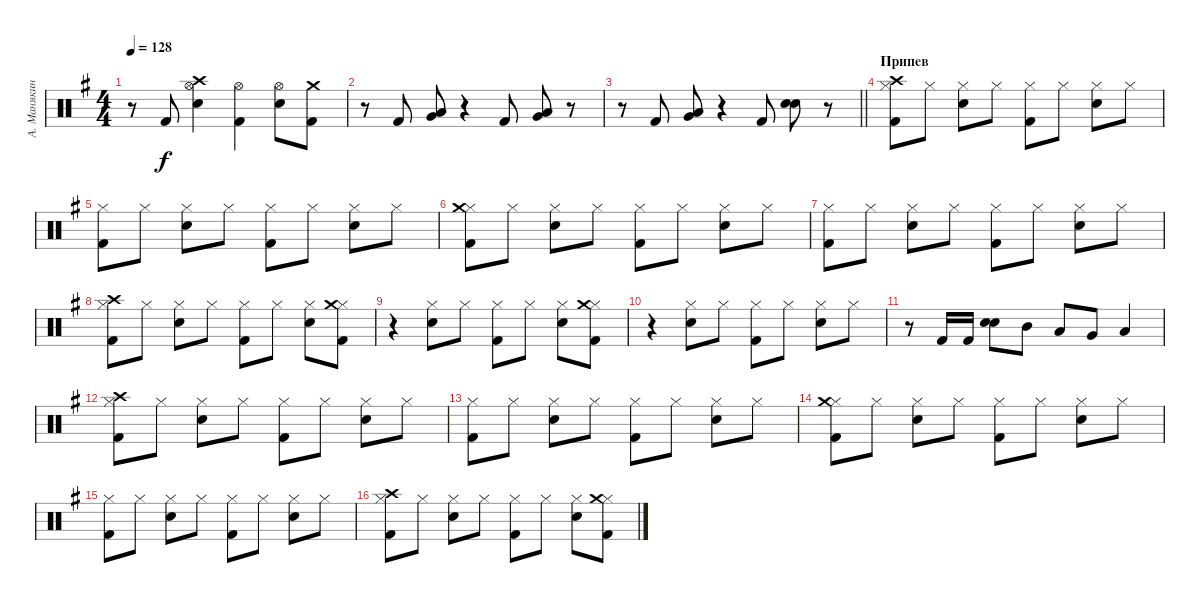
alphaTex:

\track ("А. Манякин" "А. Манякин") {instrument percussion}
\staff {score}
\articulation defaults
\ts (4 4)
\tempo 128
\clef neutral
\ks g
r.8{dy f} "Kick (hit) 2".8 ("Electric Snare (hit)" "Hi-Hat (open)" "Crash high (hit)").4 ("Kick (hit) 2" "Hi-Hat (open)").4 ("Electric Snare (hit)" "Hi-Hat (open)").8 ("Kick (hit) 2" "Crash medium (hit)").8 |
r.8 "Kick (hit) 2".8 ("Very Low Tom (hit)" "Low Tom (hit)").8 r.4 "Kick (hit) 2".8 ("Very Low Tom (hit)" "Low Tom (hit)").8 r.8 |
\barLineRight lightlight
r.8 "Kick (hit) 2".8 ("Very Low Tom (hit)" "Low Tom (hit)").8 r.4 "Kick (hit) 2".8 ("Electric Snare (hit)" "Electric Snare (hit)").8 r.8 |
\section ("" "Припев")
("Kick (hit) 2" "Hi-Hat (closed)" "Crash high (hit)").8 "Hi-Hat (closed)".8 ("Electric Snare (hit)" "Hi-Hat (closed)").8 "Hi-Hat (closed)".8 ("Kick (hit) 2" "Hi-Hat (closed)").8 "Hi-Hat (closed)".8 ("Electric Snare (hit)" "Hi-Hat (closed)").8 "Hi-Hat (closed)".8 |
("Kick (hit) 2" "Hi-Hat (closed)").8 "Hi-Hat (closed)".8 ("Electric Snare (hit)" "Hi-Hat (closed)").8 "Hi-Hat (closed)".8 ("Kick (hit) 2" "Hi-Hat (closed)").8 "Hi-Hat (closed)".8 ("Electric Snare (hit)" "Hi-Hat (closed)").8 "Hi-Hat (closed)".8 |
("Kick (hit) 2" "Hi-Hat (closed)" "Crash medium (hit)").8 "Hi-Hat (closed)".8 ("Electric Snare (hit)" "Hi-Hat (closed)").8 "Hi-Hat (closed)".8 ("Kick (hit) 2" "Hi-Hat (closed)").8 "Hi-Hat (closed)".8 ("Electric Snare (hit)" "Hi-Hat (closed)").8 "Hi-Hat (closed)".8 |
("Kick (hit) 2" "Hi-Hat (closed)").8 "Hi-Hat (closed)".8 ("Electric Snare (hit)" "Hi-Hat (closed)").8 "Hi-Hat (closed)".8 ("Kick (hit) 2" "Hi-Hat (closed)").8 "Hi-Hat (closed)".8 ("Electric Snare (hit)" "Hi-Hat (closed)").8 "Hi-Hat (closed)".8 |
("Kick (hit) 2" "Hi-Hat (closed)" "Crash high (hit)").8 "Hi-Hat (closed)".8 ("Electric Snare (hit)" "Hi-Hat (closed)").8 "Hi-Hat (closed)".8 ("Kick (hit) 2" "Hi-Hat (closed)").8 "Hi-Hat (closed)".8 ("Electric Snare (hit)" "Hi-Hat (closed)").8 ("Kick (hit) 2" "Hi-Hat (closed)" "Crash medium (hit)").8 |
r.4 ("Electric Snare (hit)" "Hi-Hat (closed)").8 "Hi-Hat (closed)".8 ("Kick (hit) 2" "Hi-Hat (closed)").8 "Hi-Hat (closed)".8 ("Electric Snare (hit)" "Hi-Hat (closed)").8 ("Kick (hit) 2" "Hi-Hat (closed)" "Crash medium (hit)").8 |
r.4 ("Electric Snare (hit)" "Hi-Hat (closed)").8 "Hi-Hat (closed)".8 ("Kick (hit) 2" "Hi-Hat (closed)").8 "Hi-Hat (closed)".8 ("Electric Snare (hit)" "Hi-Hat (closed)").8 "Hi-Hat (closed)".8 |
r.8 "Kick (hit) 2".16 "Kick (hit) 2".16 ("Electric Snare (hit)" "Electric Snare (hit)").8 "Mid Tom (hit)".8 "Low Tom (hit)".8 "Very Low Tom (hit)".8 "Low Floor Tom (hit)".4 |
("Kick (hit) 2" "Hi-Hat (closed)" "Crash high (hit)").8 "Hi-Hat (closed)".8 ("Electric Snare (hit)" "Hi-Hat (closed)").8 "Hi-Hat (closed)".8 ("Kick (hit) 2" "Hi-Hat (closed)").8 "Hi-Hat (closed)".8 ("Electric Snare (hit)" "Hi-Hat (closed)").8 "Hi-Hat (closed)".8 |
("Kick (hit) 2" "Hi-Hat (closed)").8 "Hi-Hat (closed)".8 ("Electric Snare (hit)" "Hi-Hat (closed)").8 "Hi-Hat (closed)".8 ("Kick (hit) 2" "Hi-Hat (closed)").8 "Hi-Hat (closed)".8 ("Electric Snare (hit)" "Hi-Hat (closed)").8 "Hi-Hat (closed)".8 |
("Kick (hit) 2" "Hi-Hat (closed)" "Crash medium (hit)").8 "Hi-Hat (closed)".8 ("Electric Snare (hit)" "Hi-Hat (closed)").8 "Hi-Hat (closed)".8 ("Kick (hit) 2" "Hi-Hat (closed)").8 "Hi-Hat (closed)".8 ("Electric Snare (hit)" "Hi-Hat (closed)").8 "Hi-Hat (closed)".8 |
("Kick (hit) 2" "Hi-Hat (closed)").8 "Hi-Hat (closed)".8 ("Electric Snare (hit)" "Hi-Hat (closed)").8 "Hi-Hat (closed)".8 ("Kick (hit) 2" "Hi-Hat (closed)").8 "Hi-Hat (closed)".8 ("Electric Snare (hit)" "Hi-Hat (closed)").8 "Hi-Hat (closed)".8 |
("Kick (hit) 2" "Hi-Hat (closed)" "Crash high (hit)").8 "Hi-Hat (closed)".8 ("Electric Snare (hit)" "Hi-Hat (closed)").8 "Hi-Hat (closed)".8 ("Kick (hit) 2" "Hi-Hat (closed)").8 "Hi-Hat (closed)".8 ("Electric Snare (hit)" "Hi-Hat (closed)").8 ("Kick (hit) 2" "Hi-Hat (closed)" "Crash medium (hit)").8
